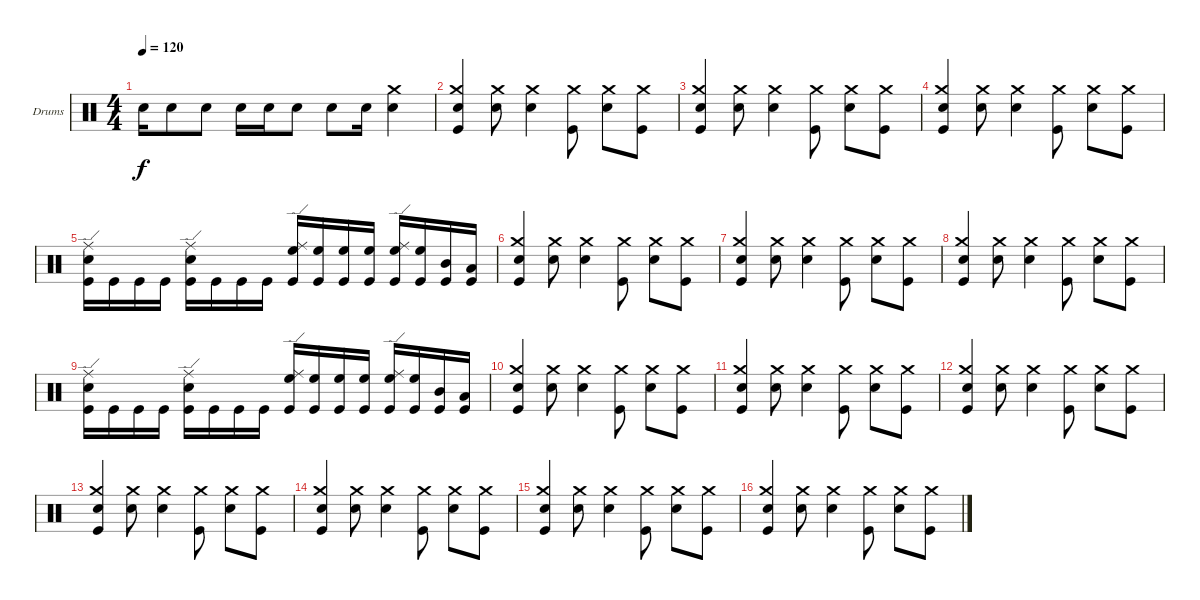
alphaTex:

\bracketExtendMode groupsimilarinstruments
\firstSystemTrackNameOrientation horizontal
\otherSystemsTrackNameOrientation horizontal
\track ("Drumkit" "Drums") {instrument percussion}
\staff {score}
\articulation defaults
\ts (4 4)
\tempo 120
\clef neutral
\ks c "Snare (hit) 2".16{dy f} "Snare (hit) 2".8 "Snare (hit) 2".8 "Snare (hit) 2".16 "Snare (hit) 2".16 "Snare (hit) 2".8 "Snare (hit) 2".8 "Snare (hit) 2".16
("Crash medium (hit)" "Snare (hit) 2").4 |
("Crash medium (hit)" "Snare (hit) 2" "Kick (hit)").4 ("Crash medium (hit)" "Snare (hit) 2").8 ("Crash medium (hit)" "Snare (hit) 2").4 ("Crash medium (hit)" "Kick (hit)").8 ("Crash medium (hit)" "Snare (hit) 2").8 ("Crash medium (hit)" "Kick (hit)").8 |
("Crash medium (hit)" "Snare (hit) 2" "Kick (hit)").4 ("Crash medium (hit)" "Snare (hit) 2").8 ("Crash medium (hit)" "Snare (hit) 2").4 ("Crash medium (hit)" "Kick (hit)").8 ("Crash medium (hit)" "Snare (hit) 2").8 ("Crash medium (hit)" "Kick (hit)").8 |
("Crash medium (hit)" "Snare (hit) 2" "Kick (hit)").4 ("Crash medium (hit)" "Snare (hit) 2").8 ("Crash medium (hit)" "Snare (hit) 2").4 ("Crash medium (hit)" "Kick (hit)").8 ("Crash medium (hit)" "Snare (hit) 2").8 ("Crash medium (hit)" "Kick (hit)").8 |
("Ride (edge)" "Snare (hit) 2" "Kick (hit)").16 "Kick (hit)".16 "Kick (hit)".16 "Kick (hit)".16 ("Ride (edge)" "Snare (hit) 2" "Kick (hit)").16 "Kick (hit)".16 "Kick (hit)".16 "Kick (hit)".16 ("Ride (edge)" "High Floor Tom (hit)" "Kick (hit)").16 ("High Floor Tom (hit)" "Kick (hit)").16 ("High Floor Tom (hit)" "Kick (hit)").16 ("High Floor Tom (hit)" "Kick (hit)").16 ("Ride (edge)" "High Floor Tom (hit)" "Kick (hit)").16 ("High Floor Tom (hit)" "Kick (hit)").16 ("Mid Tom (hit)" "Kick (hit)").16 ("Low Tom (hit)" "Kick (hit)").16 |
("Crash medium (hit)" "Snare (hit) 2" "Kick (hit)").4 ("Crash medium (hit)" "Snare (hit) 2").8 ("Crash medium (hit)" "Snare (hit) 2").4 ("Crash medium (hit)" "Kick (hit)").8 ("Crash medium (hit)" "Snare (hit) 2").8 ("Crash medium (hit)" "Kick (hit)").8 |
("Crash medium (hit)" "Snare (hit) 2" "Kick (hit)").4 ("Crash medium (hit)" "Snare (hit) 2").8 ("Crash medium (hit)" "Snare (hit) 2").4 ("Crash medium (hit)" "Kick (hit)").8 ("Crash medium (hit)" "Snare (hit) 2").8 ("Crash medium (hit)" "Kick (hit)").8 |
("Crash medium (hit)" "Snare (hit) 2" "Kick (hit)").4 ("Crash medium (hit)" "Snare (hit) 2").8 ("Crash medium (hit)" "Snare (hit) 2").4 ("Crash medium (hit)" "Kick (hit)").8 ("Crash medium (hit)" "Snare (hit) 2").8 ("Crash medium (hit)" "Kick (hit)").8 |
("Ride (edge)" "Snare (hit) 2" "Kick (hit)").16 "Kick (hit)".16 "Kick (hit)".16 "Kick (hit)".16 ("Ride (edge)" "Snare (hit) 2" "Kick (hit)").16 "Kick (hit)".16 "Kick (hit)".16 "Kick (hit)".16 ("Ride (edge)" "High Floor Tom (hit)" "Kick (hit)").16 ("High Floor Tom (hit)" "Kick (hit)").16 ("High Floor Tom (hit)" "Kick (hit)").16 ("High Floor Tom (hit)" "Kick (hit)").16 ("Ride (edge)" "High Floor Tom (hit)" "Kick (hit)").16 ("High Floor Tom (hit)" "Kick (hit)").16 ("Mid Tom (hit)" "Kick (hit)").16 ("Low Tom (hit)" "Kick (hit)").16 |
("Crash medium (hit)" "Snare (hit) 2" "Kick (hit)").4 ("Crash medium (hit)" "Snare (hit) 2").8 ("Crash medium (hit)" "Snare (hit) 2").4 ("Crash medium (hit)" "Kick (hit)").8 ("Crash medium (hit)" "Snare (hit) 2").8 ("Crash medium (hit)" "Kick (hit)").8 |
("Crash medium (hit)" "Snare (hit) 2" "Kick (hit)").4 ("Crash medium (hit)" "Snare (hit) 2").8 ("Crash medium (hit)" "Snare (hit) 2").4 ("Crash medium (hit)" "Kick (hit)").8 ("Crash medium (hit)" "Snare (hit) 2").8 ("Crash medium (hit)" "Kick (hit)").8 |
("Crash medium (hit)" "Snare (hit) 2" "Kick (hit)").4 ("Crash medium (hit)" "Snare (hit) 2").8 ("Crash medium (hit)" "Snare (hit) 2").4 ("Crash medium (hit)" "Kick (hit)").8 ("Crash medium (hit)" "Snare (hit) 2").8 ("Crash medium (hit)" "Kick (hit)").8 |
("Crash medium (hit)" "Snare (hit) 2" "Kick (hit)").4 ("Crash medium (hit)" "Snare (hit) 2").8 ("Crash medium (hit)" "Snare (hit) 2").4 ("Crash medium (hit)" "Kick (hit)").8 ("Crash medium (hit)" "Snare (hit) 2").8 ("Crash medium (hit)" "Kick (hit)").8 |
("Crash medium (hit)" "Snare (hit) 2" "Kick (hit)").4 ("Crash medium (hit)" "Snare (hit) 2").8 ("Crash medium (hit)" "Snare (hit) 2").4 ("Crash medium (hit)" "Kick (hit)").8 ("Crash medium (hit)" "Snare (hit) 2").8 ("Crash medium (hit)" "Kick (hit)").8 |
("Crash medium (hit)" "Snare (hit) 2" "Kick (hit)").4 ("Crash medium (hit)" "Snare (hit) 2").8 ("Crash medium (hit)" "Snare (hit) 2").4 ("Crash medium (hit)" "Kick (hit)").8 ("Crash medium (hit)" "Snare (hit) 2").8 ("Crash medium (hit)" "Kick (hit)").8 |
("Crash medium (hit)" "Snare (hit) 2" "Kick (hit)").4 ("Crash medium (hit)" "Snare (hit) 2").8 ("Crash medium (hit)" "Snare (hit) 2").4 ("Crash medium (hit)" "Kick (hit)").8 ("Crash medium (hit)" "Snare (hit) 2").8 ("Crash medium (hit)" "Kick (hit)").8
